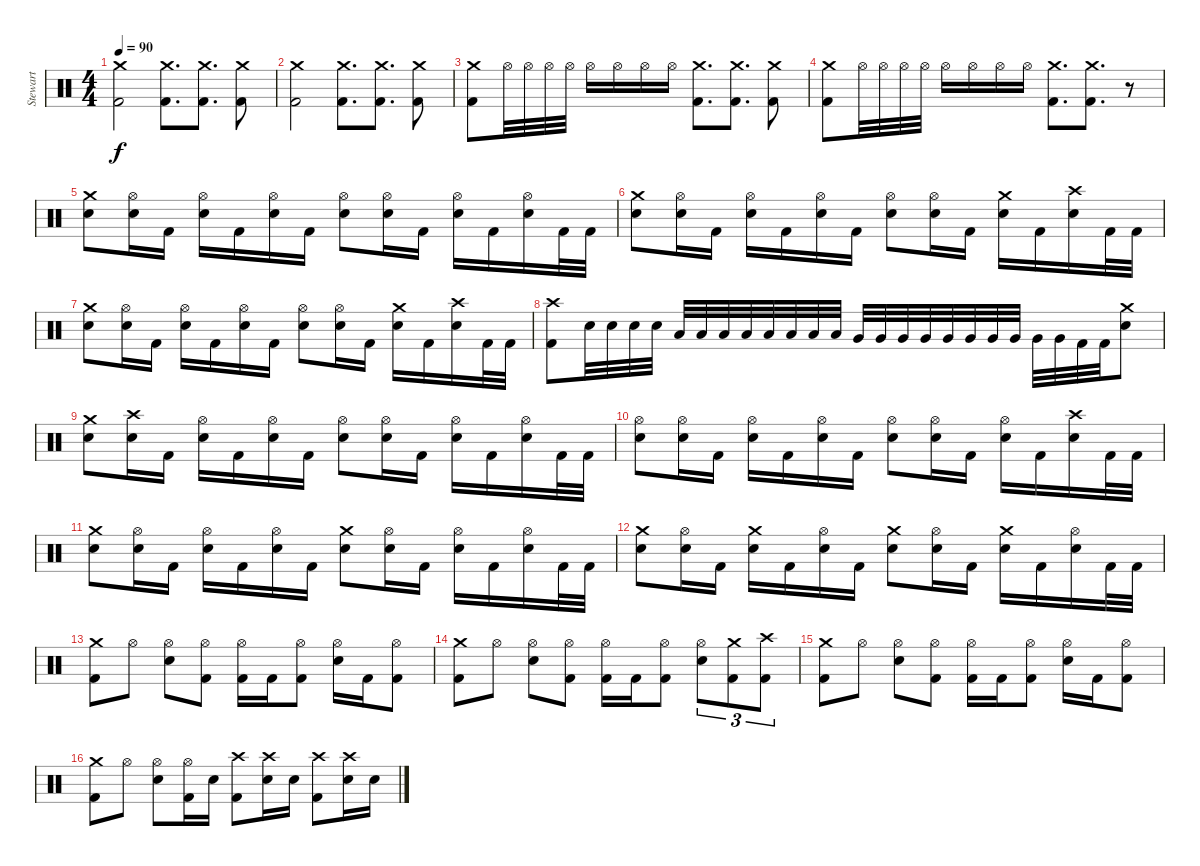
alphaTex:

\track ("Stewart" "Stewart") {instrument percussion}
\staff {score}
\articulation defaults
\ts (4 4)
\tempo 90
\clef neutral
\ks c
("Crash medium (hit)" "Kick (hit) 2").2{dy f} ("Crash medium (hit)" "Kick (hit) 2").8{d} ("Crash medium (hit)" "Kick (hit) 2").8{d} ("Crash medium (hit)" "Kick (hit) 2").8 |
("Crash medium (hit)" "Kick (hit) 2").2 ("Crash medium (hit)" "Kick (hit) 2").8{d} ("Crash medium (hit)" "Kick (hit) 2").8{d} ("Crash medium (hit)" "Kick (hit) 2").8 |
("Crash medium (hit)" "Kick (hit) 2").8 "Hi-Hat (open)".32 "Hi-Hat (open)".32 "Hi-Hat (open)".32 "Hi-Hat (open)".32 "Hi-Hat (open)".16 "Hi-Hat (open)".16 "Hi-Hat (open)".16 "Hi-Hat (open)".16 ("Crash medium (hit)" "Kick (hit) 2").8{d} ("Crash medium (hit)" "Kick (hit) 2").8{d} ("Crash medium (hit)" "Kick (hit) 2").8 |
("Crash medium (hit)" "Kick (hit) 2").8 "Hi-Hat (open)".32 "Hi-Hat (open)".32 "Hi-Hat (open)".32 "Hi-Hat (open)".32 "Hi-Hat (open)".16 "Hi-Hat (open)".16 "Hi-Hat (open)".16 "Hi-Hat (open)".16 ("Crash medium (hit)" "Kick (hit) 2").8{d} ("Crash medium (hit)" "Kick (hit) 2").8{d} r.8 |
("Crash medium (hit)" "Electric Snare (hit)").8 ("Hi-Hat (open)" "Electric Snare (hit)").16 "Kick (hit) 2".16 ("Hi-Hat (open)" "Electric Snare (hit)").16 "Kick (hit) 2".16 ("Hi-Hat (open)" "Electric Snare (hit)").16 "Kick (hit) 2".16 ("Hi-Hat (open)" "Electric Snare (hit)").8 ("Hi-Hat (open)" "Electric Snare (hit)").16 "Kick (hit) 2".16 ("Hi-Hat (open)" "Electric Snare (hit)").16 "Kick (hit) 2".16 ("Hi-Hat (open)" "Electric Snare (hit)").16 "Kick (hit) 2".32 "Kick (hit) 2".32 |
("Crash medium (hit)" "Electric Snare (hit)").8 ("Hi-Hat (open)" "Electric Snare (hit)").16 "Kick (hit) 2".16 ("Hi-Hat (open)" "Electric Snare (hit)").16 "Kick (hit) 2".16 ("Hi-Hat (open)" "Electric Snare (hit)").16 "Kick (hit) 2".16 ("Hi-Hat (open)" "Electric Snare (hit)").8 ("Hi-Hat (open)" "Electric Snare (hit)").16 "Kick (hit) 2".16 ("Crash medium (hit)" "Electric Snare (hit)").16 "Kick (hit) 2".16 ("Crash high (hit)" "Electric Snare (hit)").16 "Kick (hit) 2".32 "Kick (hit) 2".32 |
("Crash medium (hit)" "Electric Snare (hit)").8 ("Hi-Hat (open)" "Electric Snare (hit)").16 "Kick (hit) 2".16 ("Hi-Hat (open)" "Electric Snare (hit)").16 "Kick (hit) 2".16 ("Hi-Hat (open)" "Electric Snare (hit)").16 "Kick (hit) 2".16 ("Hi-Hat (open)" "Electric Snare (hit)").8 ("Hi-Hat (open)" "Electric Snare (hit)").16 "Kick (hit) 2".16 ("Crash medium (hit)" "Electric Snare (hit)").16 "Kick (hit) 2".16 ("Crash high (hit)" "Electric Snare (hit)").16 "Kick (hit) 2".32 "Kick (hit) 2".32 |
("Crash high (hit)" "Kick (hit) 2").8 "Electric Snare (hit)".32 "Electric Snare (hit)".32 "Electric Snare (hit)".32 "Electric Snare (hit)".32 "Low Tom (hit)".32 "Low Tom (hit)".32 "Low Tom (hit)".32 "Low Tom (hit)".32 "Low Tom (hit)".32 "Low Tom (hit)".32 "Low Tom (hit)".32 "Low Tom (hit)".32 "Very Low Tom (hit)".32 "Very Low Tom (hit)".32 "Very Low Tom (hit)".32 "Very Low Tom (hit)".32 "Very Low Tom (hit)".32 "Very Low Tom (hit)".32 "Very Low Tom (hit)".32 "Very Low Tom (hit)".32 "Very Low Tom (hit)".32 "Very Low Tom (hit)".32 "Kick (hit) 2".32 "Kick (hit) 2".32 ("Crash medium (hit)" "Electric Snare (hit)").8 |
("Crash medium (hit)" "Electric Snare (hit)").8 ("Crash high (hit)" "Electric Snare (hit)").16 "Kick (hit) 2".16 ("Hi-Hat (open)" "Electric Snare (hit)").16 "Kick (hit) 2".16 ("Hi-Hat (open)" "Electric Snare (hit)").16 "Kick (hit) 2".16 ("Hi-Hat (open)" "Electric Snare (hit)").8 ("Hi-Hat (open)" "Electric Snare (hit)").16 "Kick (hit) 2".16 ("Hi-Hat (open)" "Electric Snare (hit)").16 "Kick (hit) 2".16 ("Hi-Hat (open)" "Electric Snare (hit)").16 "Kick (hit) 2".32 "Kick (hit) 2".32 |
("Hi-Hat (open)" "Electric Snare (hit)").8 ("Hi-Hat (open)" "Electric Snare (hit)").16 "Kick (hit) 2".16 ("Hi-Hat (open)" "Electric Snare (hit)").16 "Kick (hit) 2".16 ("Hi-Hat (open)" "Electric Snare (hit)").16 "Kick (hit) 2".16 ("Hi-Hat (open)" "Electric Snare (hit)").8 ("Hi-Hat (open)" "Electric Snare (hit)").16 "Kick (hit) 2".16 ("Hi-Hat (open)" "Electric Snare (hit)").16 "Kick (hit) 2".16 ("Crash high (hit)" "Electric Snare (hit)").16 "Kick (hit) 2".32 "Kick (hit) 2".32 |
("Crash medium (hit)" "Electric Snare (hit)").8 ("Hi-Hat (open)" "Electric Snare (hit)").16 "Kick (hit) 2".16 ("Hi-Hat (open)" "Electric Snare (hit)").16 "Kick (hit) 2".16 ("Hi-Hat (open)" "Electric Snare (hit)").16 "Kick (hit) 2".16 ("Crash medium (hit)" "Electric Snare (hit)").8 ("Hi-Hat (open)" "Electric Snare (hit)").16 "Kick (hit) 2".16 ("Hi-Hat (open)" "Electric Snare (hit)").16 "Kick (hit) 2".16 ("Hi-Hat (open)" "Electric Snare (hit)").16 "Kick (hit) 2".32 "Kick (hit) 2".32 |
("Crash medium (hit)" "Electric Snare (hit)").8 ("Hi-Hat (open)" "Electric Snare (hit)").16 "Kick (hit) 2".16 ("Crash medium (hit)" "Electric Snare (hit)").16 "Kick (hit) 2".16 ("Hi-Hat (open)" "Electric Snare (hit)").16 "Kick (hit) 2".16 ("Crash medium (hit)" "Electric Snare (hit)").8 ("Hi-Hat (open)" "Electric Snare (hit)").16 "Kick (hit) 2".16 ("Crash medium (hit)" "Electric Snare (hit)").16 "Kick (hit) 2".16 ("Hi-Hat (open)" "Electric Snare (hit)").16 "Kick (hit) 2".32 "Kick (hit) 2".32 |
("Crash medium (hit)" "Kick (hit) 2").8 "Hi-Hat (open)".8 ("Hi-Hat (open)" "Electric Snare (hit)").8 ("Hi-Hat (open)" "Kick (hit) 2").8 ("Hi-Hat (open)" "Kick (hit) 2").16 "Kick (hit) 2".16 ("Hi-Hat (open)" "Kick (hit) 2").8 ("Hi-Hat (open)" "Electric Snare (hit)").16 "Kick (hit) 2".16 ("Hi-Hat (open)" "Kick (hit) 2").8 |
("Crash medium (hit)" "Kick (hit) 2").8 "Hi-Hat (open)".8 ("Hi-Hat (open)" "Electric Snare (hit)").8 ("Hi-Hat (open)" "Kick (hit) 2").8 ("Hi-Hat (open)" "Kick (hit) 2").16 "Kick (hit) 2".16 ("Hi-Hat (open)" "Kick (hit) 2").8 ("Hi-Hat (open)" "Electric Snare (hit)").8{tu (3 2)} ("Crash medium (hit)" "Kick (hit) 2").8{tu (3 2)} ("Crash high (hit)" "Kick (hit) 2").8{tu (3 2)} |
("Crash medium (hit)" "Kick (hit) 2").8 "Hi-Hat (open)".8 ("Hi-Hat (open)" "Electric Snare (hit)").8 ("Hi-Hat (open)" "Kick (hit) 2").8 ("Hi-Hat (open)" "Kick (hit) 2").16 "Kick (hit) 2".16 ("Hi-Hat (open)" "Kick (hit) 2").8 ("Hi-Hat (open)" "Electric Snare (hit)").16 "Kick (hit) 2".16 ("Hi-Hat (open)" "Kick (hit) 2").8 |
("Crash medium (hit)" "Kick (hit) 2").8 "Hi-Hat (open)".8 ("Hi-Hat (open)" "Electric Snare (hit)").8 ("Hi-Hat (open)" "Kick (hit) 2").16 "Electric Snare (hit)".16 ("Crash high (hit)" "Kick (hit) 2").8 ("Crash high (hit)" "Electric Snare (hit)").16 "Electric Snare (hit)".16 ("Crash high (hit)" "Kick (hit) 2").8 ("Crash high (hit)" "Electric Snare (hit)").16 "Electric Snare (hit)".16
